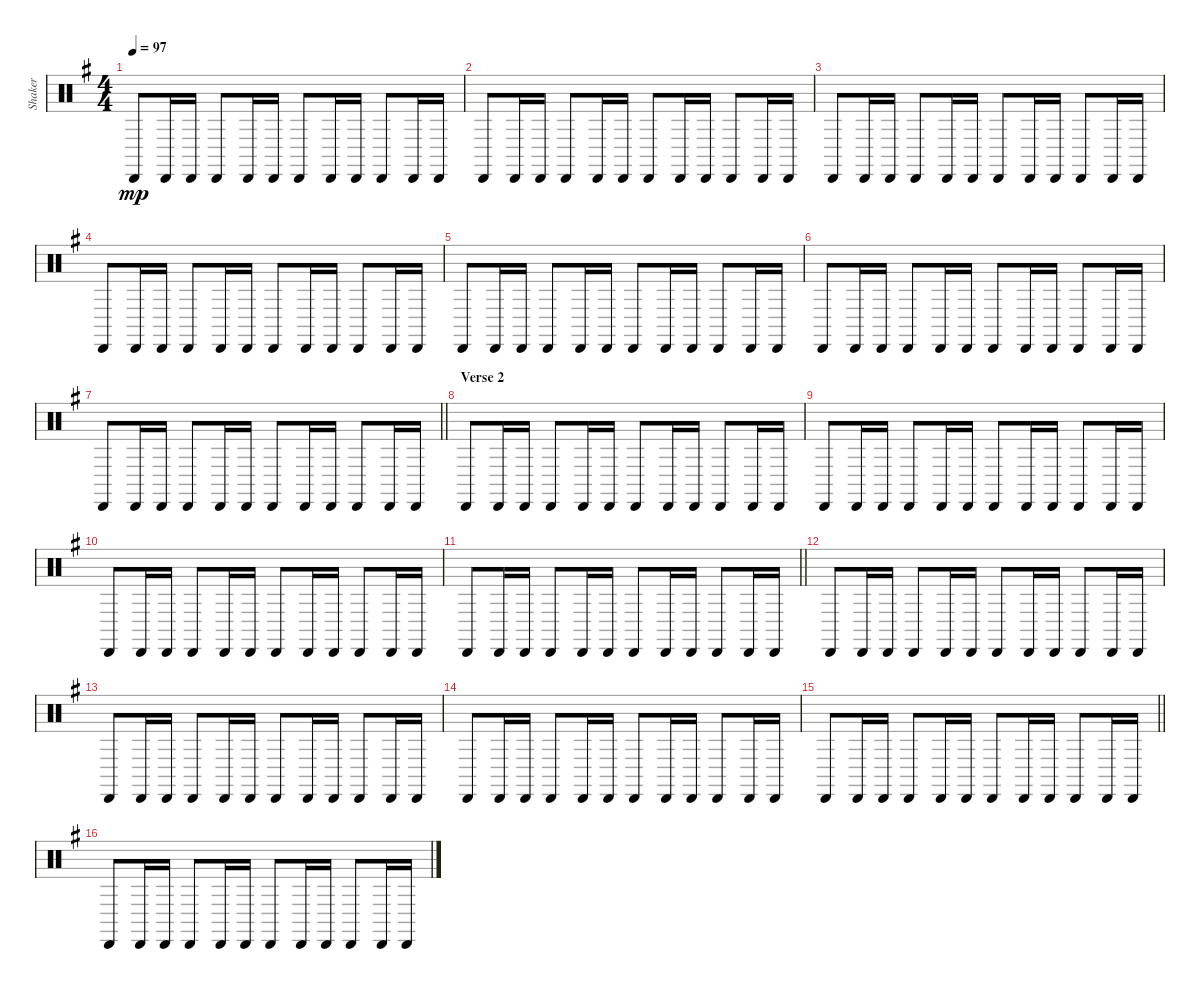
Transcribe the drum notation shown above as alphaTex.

\track ("Shaker" "Shaker") {instrument percussion}
\staff {score}
\articulation defaults
\ts (4 4)
\tempo 97
\clef neutral
\ks g "Cabasa (hit)".8{dy mp} "Cabasa (hit)".16 "Cabasa (hit)".16 "Cabasa (hit)".8 "Cabasa (hit)".16 "Cabasa (hit)".16 "Cabasa (hit)".8 "Cabasa (hit)".16 "Cabasa (hit)".16 "Cabasa (hit)".8 "Cabasa (hit)".16 "Cabasa (hit)".16
|
"Cabasa (hit)".8 "Cabasa (hit)".16 "Cabasa (hit)".16 "Cabasa (hit)".8 "Cabasa (hit)".16 "Cabasa (hit)".16 "Cabasa (hit)".8 "Cabasa (hit)".16 "Cabasa (hit)".16 "Cabasa (hit)".8 "Cabasa (hit)".16 "Cabasa (hit)".16 |
"Cabasa (hit)".8 "Cabasa (hit)".16 "Cabasa (hit)".16 "Cabasa (hit)".8 "Cabasa (hit)".16 "Cabasa (hit)".16 "Cabasa (hit)".8 "Cabasa (hit)".16 "Cabasa (hit)".16 "Cabasa (hit)".8 "Cabasa (hit)".16 "Cabasa (hit)".16 |
"Cabasa (hit)".8 "Cabasa (hit)".16 "Cabasa (hit)".16 "Cabasa (hit)".8 "Cabasa (hit)".16 "Cabasa (hit)".16 "Cabasa (hit)".8 "Cabasa (hit)".16 "Cabasa (hit)".16 "Cabasa (hit)".8 "Cabasa (hit)".16 "Cabasa (hit)".16 |
"Cabasa (hit)".8 "Cabasa (hit)".16 "Cabasa (hit)".16 "Cabasa (hit)".8 "Cabasa (hit)".16 "Cabasa (hit)".16 "Cabasa (hit)".8 "Cabasa (hit)".16 "Cabasa (hit)".16 "Cabasa (hit)".8 "Cabasa (hit)".16 "Cabasa (hit)".16 |
"Cabasa (hit)".8 "Cabasa (hit)".16 "Cabasa (hit)".16 "Cabasa (hit)".8 "Cabasa (hit)".16 "Cabasa (hit)".16 "Cabasa (hit)".8 "Cabasa (hit)".16 "Cabasa (hit)".16 "Cabasa (hit)".8 "Cabasa (hit)".16 "Cabasa (hit)".16 |
\barLineRight lightlight "Cabasa (hit)".8 "Cabasa (hit)".16 "Cabasa (hit)".16 "Cabasa (hit)".8 "Cabasa (hit)".16 "Cabasa (hit)".16 "Cabasa (hit)".8 "Cabasa (hit)".16 "Cabasa (hit)".16 "Cabasa (hit)".8 "Cabasa (hit)".16 "Cabasa (hit)".16
|
\section ("" "Verse 2")
"Cabasa (hit)".8 "Cabasa (hit)".16 "Cabasa (hit)".16 "Cabasa (hit)".8 "Cabasa (hit)".16 "Cabasa (hit)".16 "Cabasa (hit)".8 "Cabasa (hit)".16 "Cabasa (hit)".16 "Cabasa (hit)".8 "Cabasa (hit)".16 "Cabasa (hit)".16 |
"Cabasa (hit)".8 "Cabasa (hit)".16 "Cabasa (hit)".16 "Cabasa (hit)".8 "Cabasa (hit)".16 "Cabasa (hit)".16 "Cabasa (hit)".8 "Cabasa (hit)".16 "Cabasa (hit)".16 "Cabasa (hit)".8 "Cabasa (hit)".16 "Cabasa (hit)".16 |
"Cabasa (hit)".8 "Cabasa (hit)".16 "Cabasa (hit)".16 "Cabasa (hit)".8 "Cabasa (hit)".16 "Cabasa (hit)".16 "Cabasa (hit)".8 "Cabasa (hit)".16 "Cabasa (hit)".16 "Cabasa (hit)".8 "Cabasa (hit)".16 "Cabasa (hit)".16 |
\barLineRight lightlight "Cabasa (hit)".8 "Cabasa (hit)".16 "Cabasa (hit)".16 "Cabasa (hit)".8 "Cabasa (hit)".16 "Cabasa (hit)".16 "Cabasa (hit)".8 "Cabasa (hit)".16 "Cabasa (hit)".16 "Cabasa (hit)".8 "Cabasa (hit)".16 "Cabasa (hit)".16
|
"Cabasa (hit)".8 "Cabasa (hit)".16 "Cabasa (hit)".16 "Cabasa (hit)".8 "Cabasa (hit)".16 "Cabasa (hit)".16 "Cabasa (hit)".8 "Cabasa (hit)".16 "Cabasa (hit)".16 "Cabasa (hit)".8 "Cabasa (hit)".16 "Cabasa (hit)".16 |
"Cabasa (hit)".8 "Cabasa (hit)".16 "Cabasa (hit)".16 "Cabasa (hit)".8 "Cabasa (hit)".16 "Cabasa (hit)".16 "Cabasa (hit)".8 "Cabasa (hit)".16 "Cabasa (hit)".16 "Cabasa (hit)".8 "Cabasa (hit)".16 "Cabasa (hit)".16 |
"Cabasa (hit)".8 "Cabasa (hit)".16 "Cabasa (hit)".16 "Cabasa (hit)".8 "Cabasa (hit)".16 "Cabasa (hit)".16 "Cabasa (hit)".8 "Cabasa (hit)".16 "Cabasa (hit)".16 "Cabasa (hit)".8 "Cabasa (hit)".16 "Cabasa (hit)".16 |
\barLineRight lightlight "Cabasa (hit)".8 "Cabasa (hit)".16 "Cabasa (hit)".16 "Cabasa (hit)".8 "Cabasa (hit)".16 "Cabasa (hit)".16 "Cabasa (hit)".8 "Cabasa (hit)".16 "Cabasa (hit)".16 "Cabasa (hit)".8 "Cabasa (hit)".16 "Cabasa (hit)".16
|
"Cabasa (hit)".8 "Cabasa (hit)".16 "Cabasa (hit)".16 "Cabasa (hit)".8 "Cabasa (hit)".16 "Cabasa (hit)".16 "Cabasa (hit)".8 "Cabasa (hit)".16 "Cabasa (hit)".16 "Cabasa (hit)".8 "Cabasa (hit)".16 "Cabasa (hit)".16
